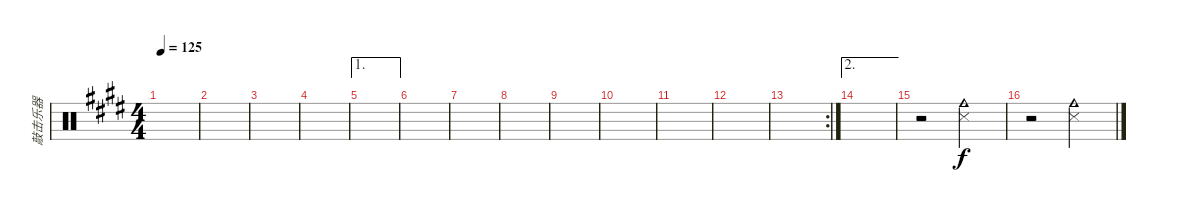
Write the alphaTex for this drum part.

\track ("敲击乐器" "敲击乐器") {instrument percussion}
\staff {score}
\articulation defaults
\ts (4 4)
\tempo 125
\clef neutral
\ks e
|
|
|
|
\ae 1
|
|
|
|
|
|
|
|
\rc 2
|
\ae 2
|
r.2 ("Cowbell medium (hit)" "Snare (side stick) 3").2 |
r.2 ("Cowbell medium (hit)" "Snare (side stick) 3").2
